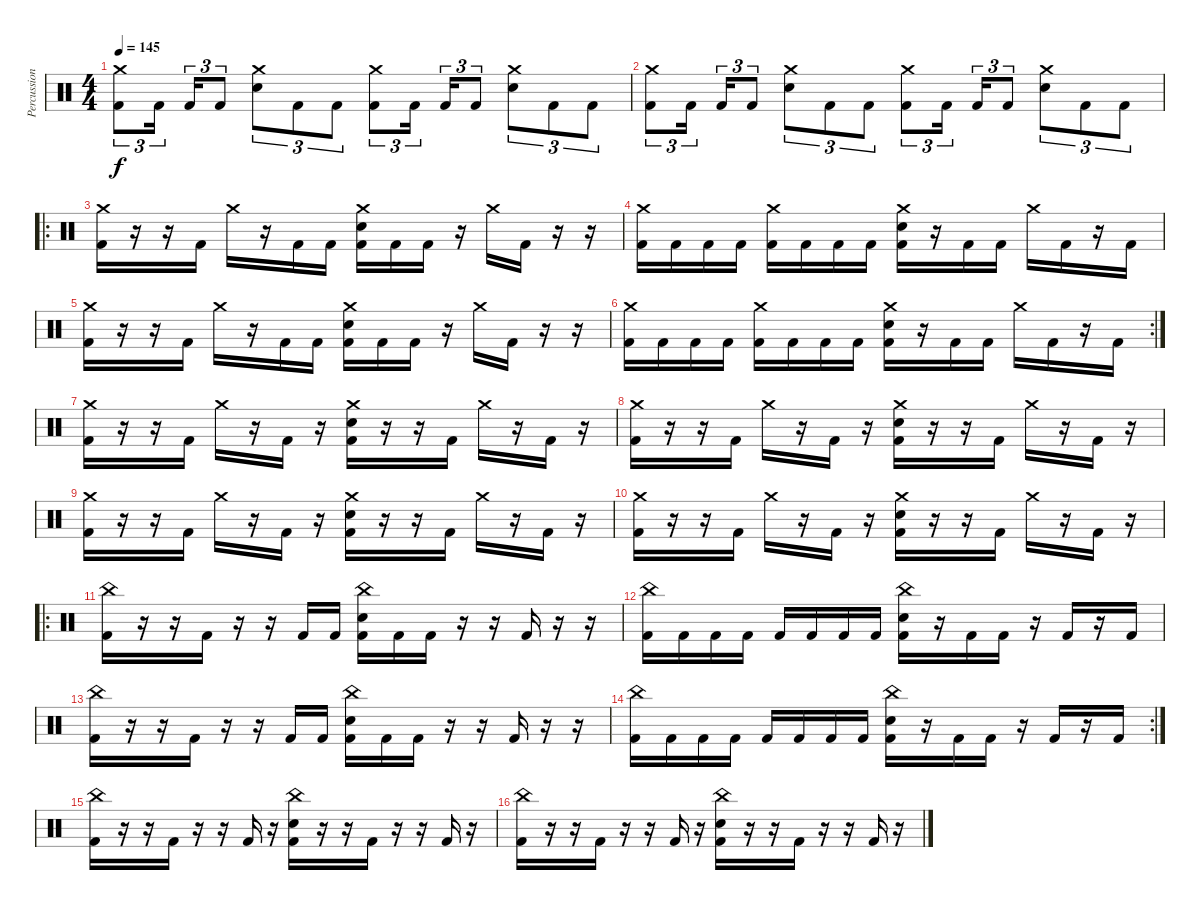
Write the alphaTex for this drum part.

\track ("Percussion" "Percussion") {instrument percussion}
\staff {score}
\articulation defaults
\ts (4 4)
\tempo 145
\clef neutral
\ks c
("Crash medium (hit)" "Kick (hit) 2").8{tu (3 2) dy f} "Kick (hit) 2".16{tu (3 2)} "Kick (hit) 2".16{tu (3 2)} "Kick (hit) 2".8{tu (3 2)} ("Crash medium (hit)" "Electric Snare (hit)").8{tu (3 2)} "Kick (hit) 2".8{tu (3 2)} "Kick (hit) 2".8{tu (3 2)} ("Crash medium (hit)" "Kick (hit) 2").8{tu (3 2)} "Kick (hit) 2".16{tu (3 2)} "Kick (hit) 2".16{tu (3 2)} "Kick (hit) 2".8{tu (3 2)} ("Crash medium (hit)" "Electric Snare (hit)").8{tu (3 2)} "Kick (hit) 2".8{tu (3 2)} "Kick (hit) 2".8{tu (3 2)} |
("Crash medium (hit)" "Kick (hit) 2").8{tu (3 2)} "Kick (hit) 2".16{tu (3 2)} "Kick (hit) 2".16{tu (3 2)} "Kick (hit) 2".8{tu (3 2)} ("Crash medium (hit)" "Electric Snare (hit)").8{tu (3 2)} "Kick (hit) 2".8{tu (3 2)} "Kick (hit) 2".8{tu (3 2)} ("Crash medium (hit)" "Kick (hit) 2").8{tu (3 2)} "Kick (hit) 2".16{tu (3 2)} "Kick (hit) 2".16{tu (3 2)} "Kick (hit) 2".8{tu (3 2)} ("Crash medium (hit)" "Electric Snare (hit)").8{tu (3 2)} "Kick (hit) 2".8{tu (3 2)} "Kick (hit) 2".8{tu (3 2)} |
\ro
("Crash medium (hit)" "Kick (hit) 2").16 r.16 r.16 "Kick (hit) 2".16 "Crash medium (hit)".16 r.16 "Kick (hit) 2".16 "Kick (hit) 2".16 ("Crash medium (hit)" "Electric Snare (hit)" "Kick (hit) 2").16 "Kick (hit) 2".16 "Kick (hit) 2".16 r.16 "Crash medium (hit)".16 "Kick (hit) 2".16 r.16 r.16 |
("Crash medium (hit)" "Kick (hit) 2").16 "Kick (hit) 2".16 "Kick (hit) 2".16 "Kick (hit) 2".16 ("Crash medium (hit)" "Kick (hit) 2").16 "Kick (hit) 2".16 "Kick (hit) 2".16 "Kick (hit) 2".16 ("Crash medium (hit)" "Electric Snare (hit)" "Kick (hit) 2").16 r.16 "Kick (hit) 2".16 "Kick (hit) 2".16 "Crash medium (hit)".16 "Kick (hit) 2".16 r.16 "Kick (hit) 2".16 |
("Crash medium (hit)" "Kick (hit) 2").16 r.16 r.16 "Kick (hit) 2".16 "Crash medium (hit)".16 r.16 "Kick (hit) 2".16 "Kick (hit) 2".16 ("Crash medium (hit)" "Electric Snare (hit)" "Kick (hit) 2").16 "Kick (hit) 2".16 "Kick (hit) 2".16 r.16 "Crash medium (hit)".16 "Kick (hit) 2".16 r.16 r.16 |
\rc 2
("Crash medium (hit)" "Kick (hit) 2").16 "Kick (hit) 2".16 "Kick (hit) 2".16 "Kick (hit) 2".16 ("Crash medium (hit)" "Kick (hit) 2").16 "Kick (hit) 2".16 "Kick (hit) 2".16 "Kick (hit) 2".16 ("Crash medium (hit)" "Electric Snare (hit)" "Kick (hit) 2").16 r.16 "Kick (hit) 2".16 "Kick (hit) 2".16 "Crash medium (hit)".16 "Kick (hit) 2".16 r.16 "Kick (hit) 2".16 |
("Crash medium (hit)" "Kick (hit) 2").16 r.16 r.16 "Kick (hit) 2".16 "Crash medium (hit)".16 r.16 "Kick (hit) 2".16 r.16 ("Crash medium (hit)" "Electric Snare (hit)" "Kick (hit) 2").16 r.16 r.16 "Kick (hit) 2".16 "Crash medium (hit)".16 r.16 "Kick (hit) 2".16 r.16 |
("Crash medium (hit)" "Kick (hit) 2").16 r.16 r.16 "Kick (hit) 2".16 "Crash medium (hit)".16 r.16 "Kick (hit) 2".16 r.16 ("Crash medium (hit)" "Electric Snare (hit)" "Kick (hit) 2").16 r.16 r.16 "Kick (hit) 2".16 "Crash medium (hit)".16 r.16 "Kick (hit) 2".16 r.16 |
("Crash medium (hit)" "Kick (hit) 2").16 r.16 r.16 "Kick (hit) 2".16 "Crash medium (hit)".16 r.16 "Kick (hit) 2".16 r.16 ("Crash medium (hit)" "Electric Snare (hit)" "Kick (hit) 2").16 r.16 r.16 "Kick (hit) 2".16 "Crash medium (hit)".16 r.16 "Kick (hit) 2".16 r.16 |
("Crash medium (hit)" "Kick (hit) 2").16 r.16 r.16 "Kick (hit) 2".16 "Crash medium (hit)".16 r.16 "Kick (hit) 2".16 r.16 ("Crash medium (hit)" "Electric Snare (hit)" "Kick (hit) 2").16 r.16 r.16 "Kick (hit) 2".16 "Crash medium (hit)".16 r.16 "Kick (hit) 2".16 r.16 |
\ro
("China (hit)" "Kick (hit) 2").16 r.16 r.16 "Kick (hit) 2".16 r.16 r.16 "Kick (hit) 2".16 "Kick (hit) 2".16 ("China (hit)" "Electric Snare (hit)" "Kick (hit) 2").16 "Kick (hit) 2".16 "Kick (hit) 2".16 r.16 r.16 "Kick (hit) 2".16 r.16 r.16 |
("China (hit)" "Kick (hit) 2").16 "Kick (hit) 2".16 "Kick (hit) 2".16 "Kick (hit) 2".16 "Kick (hit) 2".16 "Kick (hit) 2".16 "Kick (hit) 2".16 "Kick (hit) 2".16 ("China (hit)" "Electric Snare (hit)" "Kick (hit) 2").16 r.16 "Kick (hit) 2".16 "Kick (hit) 2".16 r.16 "Kick (hit) 2".16 r.16 "Kick (hit) 2".16 |
("China (hit)" "Kick (hit) 2").16 r.16 r.16 "Kick (hit) 2".16 r.16 r.16 "Kick (hit) 2".16 "Kick (hit) 2".16 ("China (hit)" "Electric Snare (hit)" "Kick (hit) 2").16 "Kick (hit) 2".16 "Kick (hit) 2".16 r.16 r.16 "Kick (hit) 2".16 r.16 r.16 |
\rc 2
("China (hit)" "Kick (hit) 2").16 "Kick (hit) 2".16 "Kick (hit) 2".16 "Kick (hit) 2".16 "Kick (hit) 2".16 "Kick (hit) 2".16 "Kick (hit) 2".16 "Kick (hit) 2".16 ("China (hit)" "Electric Snare (hit)" "Kick (hit) 2").16 r.16 "Kick (hit) 2".16 "Kick (hit) 2".16 r.16 "Kick (hit) 2".16 r.16 "Kick (hit) 2".16 |
("China (hit)" "Kick (hit) 2").16 r.16 r.16 "Kick (hit) 2".16 r.16 r.16 "Kick (hit) 2".16 r.16 ("China (hit)" "Electric Snare (hit)" "Kick (hit) 2").16 r.16 r.16 "Kick (hit) 2".16 r.16 r.16 "Kick (hit) 2".16 r.16 |
("China (hit)" "Kick (hit) 2").16 r.16 r.16 "Kick (hit) 2".16 r.16 r.16 "Kick (hit) 2".16 r.16 ("China (hit)" "Electric Snare (hit)" "Kick (hit) 2").16 r.16 r.16 "Kick (hit) 2".16 r.16 r.16 "Kick (hit) 2".16 r.16
